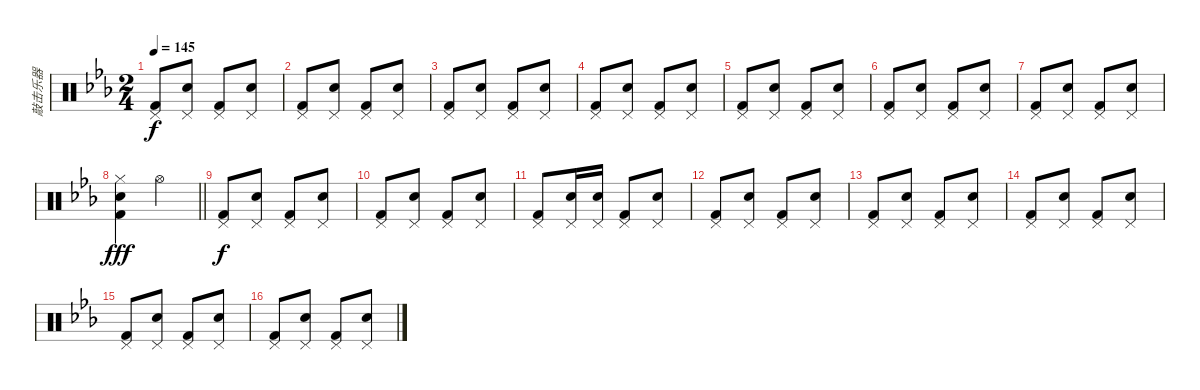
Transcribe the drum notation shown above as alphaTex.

\track ("敲击乐器" "敲击乐器") {instrument percussion}
\staff {score}
\articulation defaults
\ts (2 4)
\tempo 145
\clef neutral
\ks eb
("Pedal Hi-Hat (hit)" "Kick (hit) 2").8{dy f} ("Pedal Hi-Hat (hit)" "Snare (hit) 2").8 ("Pedal Hi-Hat (hit)" "Kick (hit) 2").8 ("Pedal Hi-Hat (hit)" "Snare (hit) 2").8 |
("Pedal Hi-Hat (hit)" "Kick (hit) 2").8 ("Pedal Hi-Hat (hit)" "Snare (hit) 2").8 ("Pedal Hi-Hat (hit)" "Kick (hit) 2").8 ("Pedal Hi-Hat (hit)" "Snare (hit) 2").8 |
("Pedal Hi-Hat (hit)" "Kick (hit) 2").8 ("Pedal Hi-Hat (hit)" "Snare (hit) 2").8 ("Pedal Hi-Hat (hit)" "Kick (hit) 2").8 ("Pedal Hi-Hat (hit)" "Snare (hit) 2").8 |
("Pedal Hi-Hat (hit)" "Kick (hit) 2").8 ("Pedal Hi-Hat (hit)" "Snare (hit) 2").8 ("Pedal Hi-Hat (hit)" "Kick (hit) 2").8 ("Pedal Hi-Hat (hit)" "Snare (hit) 2").8 |
("Pedal Hi-Hat (hit)" "Kick (hit) 2").8 ("Pedal Hi-Hat (hit)" "Snare (hit) 2").8 ("Pedal Hi-Hat (hit)" "Kick (hit) 2").8 ("Pedal Hi-Hat (hit)" "Snare (hit) 2").8 |
("Pedal Hi-Hat (hit)" "Kick (hit) 2").8 ("Pedal Hi-Hat (hit)" "Snare (hit) 2").8 ("Pedal Hi-Hat (hit)" "Kick (hit) 2").8 ("Pedal Hi-Hat (hit)" "Snare (hit) 2").8 |
("Pedal Hi-Hat (hit)" "Kick (hit) 2").8 ("Pedal Hi-Hat (hit)" "Snare (hit) 2").8 ("Pedal Hi-Hat (hit)" "Kick (hit) 2").8 ("Pedal Hi-Hat (hit)" "Snare (hit) 2").8 |
\barLineRight lightlight
("Hi-Hat (closed)" "Snare (hit) 2" "Kick (hit) 2").4{dy fff} "Hi-Hat (open)".4 |
("Pedal Hi-Hat (hit)" "Kick (hit) 2").8{dy f} ("Pedal Hi-Hat (hit)" "Snare (hit) 2").8 ("Pedal Hi-Hat (hit)" "Kick (hit) 2").8 ("Pedal Hi-Hat (hit)" "Snare (hit) 2").8 |
("Pedal Hi-Hat (hit)" "Kick (hit) 2").8 ("Pedal Hi-Hat (hit)" "Snare (hit) 2").8 ("Pedal Hi-Hat (hit)" "Kick (hit) 2").8 ("Pedal Hi-Hat (hit)" "Snare (hit) 2").8 |
("Pedal Hi-Hat (hit)" "Kick (hit) 2").8 ("Pedal Hi-Hat (hit)" "Snare (hit) 2").16 ("Pedal Hi-Hat (hit)" "Snare (hit) 2").16 ("Pedal Hi-Hat (hit)" "Kick (hit) 2").8 ("Pedal Hi-Hat (hit)" "Snare (hit) 2").8 |
("Pedal Hi-Hat (hit)" "Kick (hit) 2").8 ("Pedal Hi-Hat (hit)" "Snare (hit) 2").8 ("Pedal Hi-Hat (hit)" "Kick (hit) 2").8 ("Pedal Hi-Hat (hit)" "Snare (hit) 2").8 |
("Pedal Hi-Hat (hit)" "Kick (hit) 2").8 ("Pedal Hi-Hat (hit)" "Snare (hit) 2").8 ("Pedal Hi-Hat (hit)" "Kick (hit) 2").8 ("Pedal Hi-Hat (hit)" "Snare (hit) 2").8 |
("Pedal Hi-Hat (hit)" "Kick (hit) 2").8 ("Pedal Hi-Hat (hit)" "Snare (hit) 2").8 ("Pedal Hi-Hat (hit)" "Kick (hit) 2").8 ("Pedal Hi-Hat (hit)" "Snare (hit) 2").8 |
("Pedal Hi-Hat (hit)" "Kick (hit) 2").8 ("Pedal Hi-Hat (hit)" "Snare (hit) 2").8 ("Pedal Hi-Hat (hit)" "Kick (hit) 2").8 ("Pedal Hi-Hat (hit)" "Snare (hit) 2").8 |
("Pedal Hi-Hat (hit)" "Kick (hit) 2").8 ("Pedal Hi-Hat (hit)" "Snare (hit) 2").8 ("Pedal Hi-Hat (hit)" "Kick (hit) 2").8 ("Pedal Hi-Hat (hit)" "Snare (hit) 2").8
